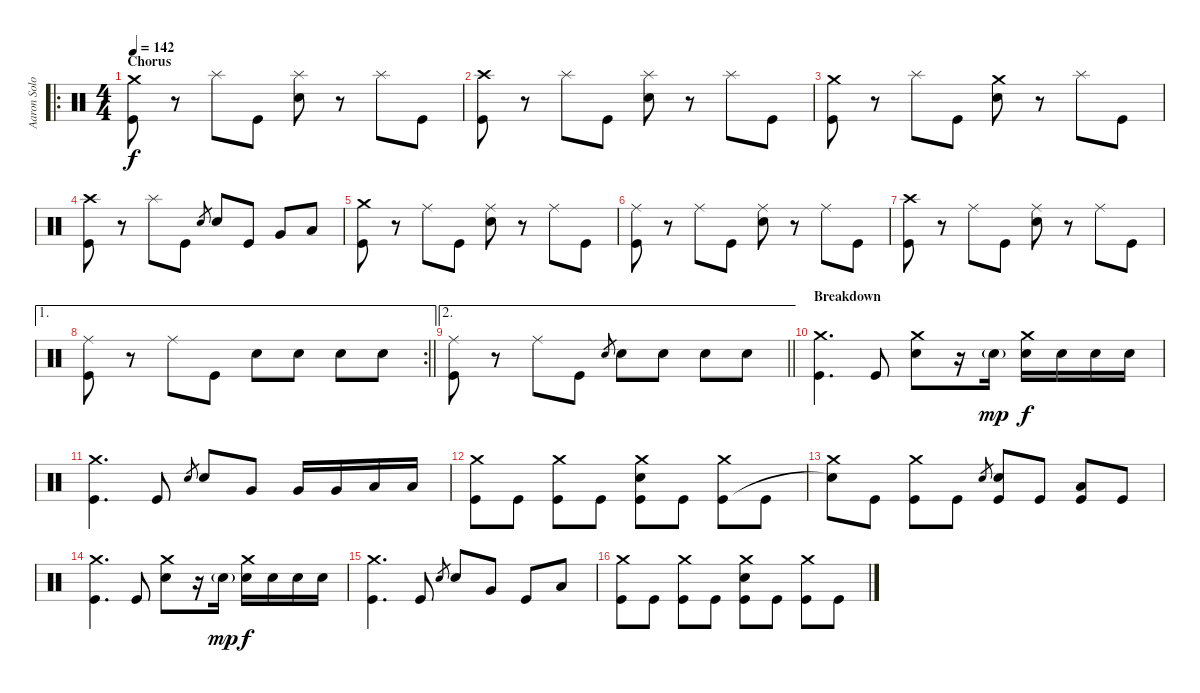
\track ("Aaron Solowoniuk" "Aaron Solo") {instrument percussion}
\staff {score}
\articulation defaults
\ro
\ts (4 4)
\section ("" "Chorus")
\tempo 142
\clef neutral
\ks c
("Crash medium (hit)" "Kick (hit)").8{dy f} r.8 "Splash (hit)".8 "Kick (hit)".8 ("Splash (hit)" "Electric Snare (hit)").8 r.8 "Splash (hit)".8 "Kick (hit)".8 |
("Crash high (hit)" "Kick (hit)").8 r.8 "Splash (hit)".8 "Kick (hit)".8 ("Splash (hit)" "Electric Snare (hit)").8 r.8 "Splash (hit)".8 "Kick (hit)".8 |
("Crash medium (hit)" "Kick (hit)").8 r.8 "Splash (hit)".8 "Kick (hit)".8 ("Crash medium (hit)" "Electric Snare (hit)").8 r.8 "Splash (hit)".8 "Kick (hit)".8 |
("Crash high (hit)" "Kick (hit)").8 r.8 "Splash (hit)".8 "Kick (hit)".8 "Electric Snare (hit)".8{gr} "Electric Snare (hit)".8 "Kick (hit)".8 "Very Low Tom (hit)".8 "Low Floor Tom (hit)".8 |
("Crash medium (hit)" "Kick (hit)").8 r.8 "Ride (middle)".8 "Kick (hit)".8 ("Ride (middle)" "Electric Snare (hit)").8 r.8 "Ride (middle)".8 "Kick (hit)".8 |
("Ride (middle)" "Kick (hit)").8 r.8 "Ride (middle)".8 "Kick (hit)".8 ("Ride (middle)" "Electric Snare (hit)").8 r.8 "Ride (middle)".8 "Kick (hit)".8 |
("Crash high (hit)" "Kick (hit)").8 r.8 "Ride (middle)".8 "Kick (hit)".8 ("Ride (middle)" "Electric Snare (hit)").8 r.8 "Ride (middle)".8 "Kick (hit)".8 |
\ae 1
\rc 2
\barLineRight lightlight
("Ride (middle)" "Kick (hit)").8 r.8 "Ride (middle)".8 "Kick (hit)".8 "Electric Snare (hit)".8 "Electric Snare (hit)".8 "Electric Snare (hit)".8 "Electric Snare (hit)".8 |
\ae 2
\barLineRight lightlight
("Ride (middle)" "Kick (hit)").8 r.8 "Ride (middle)".8 "Kick (hit)".8 "Electric Snare (hit)".8{gr} "Electric Snare (hit)".8 "Electric Snare (hit)".8 "Electric Snare (hit)".8 "Electric Snare (hit)".8 |
\section ("" "Breakdown")
("Crash medium (hit)" "Kick (hit)").4{d} "Kick (hit)".8 ("Crash medium (hit)" "Electric Snare (hit)").8 r.16 "Electric Snare (hit)"{g}.16{dy mp} ("Crash medium (hit)" "Electric Snare (hit)").16{dy f} "Electric Snare (hit)".16 "Electric Snare (hit)".16 "Electric Snare (hit)".16 |
("Crash medium (hit)" "Kick (hit)").4{d} "Kick (hit)".8 "Electric Snare (hit)".8{gr} "Electric Snare (hit)".8 "Very Low Tom (hit)".8 "Very Low Tom (hit)".16 "Very Low Tom (hit)".16 "Low Floor Tom (hit)".16 "Low Floor Tom (hit)".16 |
("Crash medium (hit)" "Kick (hit)").8 "Kick (hit)".8 ("Crash medium (hit)" "Kick (hit)").8 "Kick (hit)".8 ("Crash medium (hit)" "Electric Snare (hit)" "Kick (hit)").8 "Kick (hit)".8 ("Crash medium (hit)" "Kick (hit)").8 "Kick (hit)".8 |
("Crash medium (hit)" "Snare (hit)"{t}).8 "Kick (hit)".8 ("Crash medium (hit)" "Kick (hit)").8 "Kick (hit)".8 "Electric Snare (hit)".8{gr} ("Electric Snare (hit)" "Kick (hit)").8 "Kick (hit)".8 ("Low Floor Tom (hit)" "Kick (hit)").8 "Kick (hit)".8 |
("Crash medium (hit)" "Kick (hit)").4{d} "Kick (hit)".8 ("Crash medium (hit)" "Electric Snare (hit)").8 r.16 "Electric Snare (hit)"{g}.16{dy mp} ("Crash medium (hit)" "Electric Snare (hit)").16{dy f} "Electric Snare (hit)".16 "Electric Snare (hit)".16 "Electric Snare (hit)".16 |
("Crash medium (hit)" "Kick (hit)").4{d} "Kick (hit)".8 "Electric Snare (hit)".8{gr} "Electric Snare (hit)".8 "Very Low Tom (hit)".8 "Kick (hit)".8 "Low Floor Tom (hit)".8 |
("Crash medium (hit)" "Kick (hit)").8 "Kick (hit)".8 ("Crash medium (hit)" "Kick (hit)").8 "Kick (hit)".8 ("Crash medium (hit)" "Electric Snare (hit)" "Kick (hit)").8 "Kick (hit)".8 ("Crash medium (hit)" "Kick (hit)").8 "Kick (hit)".8
